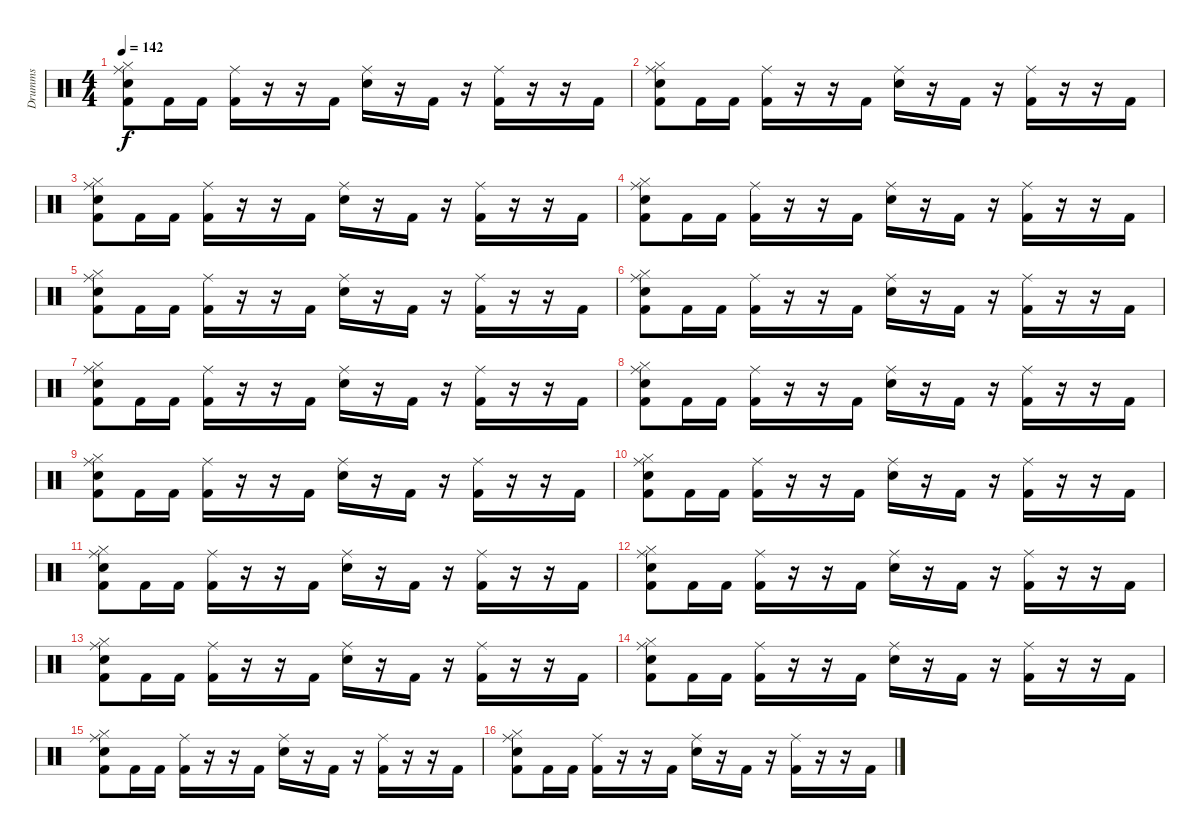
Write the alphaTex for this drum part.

\track ("Drumms" "Drumms") {instrument percussion}
\staff {score}
\articulation defaults
\ts (4 4)
\tempo 142
\clef neutral
\ks c
("Ride (middle)" "Hi-Hat (closed)" "Kick (hit) 2" "Snare (hit) 2").8{dy f} "Kick (hit) 2".16 "Kick (hit) 2".16 ("Ride (middle)" "Kick (hit) 2").16 r.16 r.16 "Kick (hit) 2".16 ("Ride (middle)" "Snare (hit) 2").16 r.16 "Kick (hit) 2".16 r.16 ("Ride (middle)" "Kick (hit) 2").16 r.16 r.16 "Kick (hit) 2".16 |
("Ride (middle)" "Hi-Hat (closed)" "Kick (hit) 2" "Snare (hit) 2").8 "Kick (hit) 2".16 "Kick (hit) 2".16 ("Ride (middle)" "Kick (hit) 2").16 r.16 r.16 "Kick (hit) 2".16 ("Ride (middle)" "Snare (hit) 2").16 r.16 "Kick (hit) 2".16 r.16 ("Ride (middle)" "Kick (hit) 2").16 r.16 r.16 "Kick (hit) 2".16 |
("Ride (middle)" "Hi-Hat (closed)" "Kick (hit) 2" "Snare (hit) 2").8 "Kick (hit) 2".16 "Kick (hit) 2".16 ("Ride (middle)" "Kick (hit) 2").16 r.16 r.16 "Kick (hit) 2".16 ("Ride (middle)" "Snare (hit) 2").16 r.16 "Kick (hit) 2".16 r.16 ("Ride (middle)" "Kick (hit) 2").16 r.16 r.16 "Kick (hit) 2".16 |
("Ride (middle)" "Hi-Hat (closed)" "Kick (hit) 2" "Snare (hit) 2").8 "Kick (hit) 2".16 "Kick (hit) 2".16 ("Ride (middle)" "Kick (hit) 2").16 r.16 r.16 "Kick (hit) 2".16 ("Ride (middle)" "Snare (hit) 2").16 r.16 "Kick (hit) 2".16 r.16 ("Ride (middle)" "Kick (hit) 2").16 r.16 r.16 "Kick (hit) 2".16 |
("Ride (middle)" "Hi-Hat (closed)" "Kick (hit) 2" "Snare (hit) 2").8 "Kick (hit) 2".16 "Kick (hit) 2".16 ("Ride (middle)" "Kick (hit) 2").16 r.16 r.16 "Kick (hit) 2".16 ("Ride (middle)" "Snare (hit) 2").16 r.16 "Kick (hit) 2".16 r.16 ("Ride (middle)" "Kick (hit) 2").16 r.16 r.16 "Kick (hit) 2".16 |
("Ride (middle)" "Hi-Hat (closed)" "Kick (hit) 2" "Snare (hit) 2").8 "Kick (hit) 2".16 "Kick (hit) 2".16 ("Ride (middle)" "Kick (hit) 2").16 r.16 r.16 "Kick (hit) 2".16 ("Ride (middle)" "Snare (hit) 2").16 r.16 "Kick (hit) 2".16 r.16 ("Ride (middle)" "Kick (hit) 2").16 r.16 r.16 "Kick (hit) 2".16 |
("Ride (middle)" "Hi-Hat (closed)" "Kick (hit) 2" "Snare (hit) 2").8 "Kick (hit) 2".16 "Kick (hit) 2".16 ("Ride (middle)" "Kick (hit) 2").16 r.16 r.16 "Kick (hit) 2".16 ("Ride (middle)" "Snare (hit) 2").16 r.16 "Kick (hit) 2".16 r.16 ("Ride (middle)" "Kick (hit) 2").16 r.16 r.16 "Kick (hit) 2".16 |
("Ride (middle)" "Hi-Hat (closed)" "Kick (hit) 2" "Snare (hit) 2").8 "Kick (hit) 2".16 "Kick (hit) 2".16 ("Ride (middle)" "Kick (hit) 2").16 r.16 r.16 "Kick (hit) 2".16 ("Ride (middle)" "Snare (hit) 2").16 r.16 "Kick (hit) 2".16 r.16 ("Ride (middle)" "Kick (hit) 2").16 r.16 r.16 "Kick (hit) 2".16 |
("Ride (middle)" "Hi-Hat (closed)" "Kick (hit) 2" "Snare (hit) 2").8 "Kick (hit) 2".16 "Kick (hit) 2".16 ("Ride (middle)" "Kick (hit) 2").16 r.16 r.16 "Kick (hit) 2".16 ("Ride (middle)" "Snare (hit) 2").16 r.16 "Kick (hit) 2".16 r.16 ("Ride (middle)" "Kick (hit) 2").16 r.16 r.16 "Kick (hit) 2".16 |
("Ride (middle)" "Hi-Hat (closed)" "Kick (hit) 2" "Snare (hit) 2").8 "Kick (hit) 2".16 "Kick (hit) 2".16 ("Ride (middle)" "Kick (hit) 2").16 r.16 r.16 "Kick (hit) 2".16 ("Ride (middle)" "Snare (hit) 2").16 r.16 "Kick (hit) 2".16 r.16 ("Ride (middle)" "Kick (hit) 2").16 r.16 r.16 "Kick (hit) 2".16 |
("Ride (middle)" "Hi-Hat (closed)" "Kick (hit) 2" "Snare (hit) 2").8 "Kick (hit) 2".16 "Kick (hit) 2".16 ("Ride (middle)" "Kick (hit) 2").16 r.16 r.16 "Kick (hit) 2".16 ("Ride (middle)" "Snare (hit) 2").16 r.16 "Kick (hit) 2".16 r.16 ("Ride (middle)" "Kick (hit) 2").16 r.16 r.16 "Kick (hit) 2".16 |
("Ride (middle)" "Hi-Hat (closed)" "Kick (hit) 2" "Snare (hit) 2").8 "Kick (hit) 2".16 "Kick (hit) 2".16 ("Ride (middle)" "Kick (hit) 2").16 r.16 r.16 "Kick (hit) 2".16 ("Ride (middle)" "Snare (hit) 2").16 r.16 "Kick (hit) 2".16 r.16 ("Ride (middle)" "Kick (hit) 2").16 r.16 r.16 "Kick (hit) 2".16 |
("Ride (middle)" "Hi-Hat (closed)" "Kick (hit) 2" "Snare (hit) 2").8 "Kick (hit) 2".16 "Kick (hit) 2".16 ("Ride (middle)" "Kick (hit) 2").16 r.16 r.16 "Kick (hit) 2".16 ("Ride (middle)" "Snare (hit) 2").16 r.16 "Kick (hit) 2".16 r.16 ("Ride (middle)" "Kick (hit) 2").16 r.16 r.16 "Kick (hit) 2".16 |
("Ride (middle)" "Hi-Hat (closed)" "Kick (hit) 2" "Snare (hit) 2").8 "Kick (hit) 2".16 "Kick (hit) 2".16 ("Ride (middle)" "Kick (hit) 2").16 r.16 r.16 "Kick (hit) 2".16 ("Ride (middle)" "Snare (hit) 2").16 r.16 "Kick (hit) 2".16 r.16 ("Ride (middle)" "Kick (hit) 2").16 r.16 r.16 "Kick (hit) 2".16 |
("Ride (middle)" "Hi-Hat (closed)" "Kick (hit) 2" "Snare (hit) 2").8 "Kick (hit) 2".16 "Kick (hit) 2".16 ("Ride (middle)" "Kick (hit) 2").16 r.16 r.16 "Kick (hit) 2".16 ("Ride (middle)" "Snare (hit) 2").16 r.16 "Kick (hit) 2".16 r.16 ("Ride (middle)" "Kick (hit) 2").16 r.16 r.16 "Kick (hit) 2".16 |
("Ride (middle)" "Hi-Hat (closed)" "Kick (hit) 2" "Snare (hit) 2").8 "Kick (hit) 2".16 "Kick (hit) 2".16 ("Ride (middle)" "Kick (hit) 2").16 r.16 r.16 "Kick (hit) 2".16 ("Ride (middle)" "Snare (hit) 2").16 r.16 "Kick (hit) 2".16 r.16 ("Ride (middle)" "Kick (hit) 2").16 r.16 r.16 "Kick (hit) 2".16
